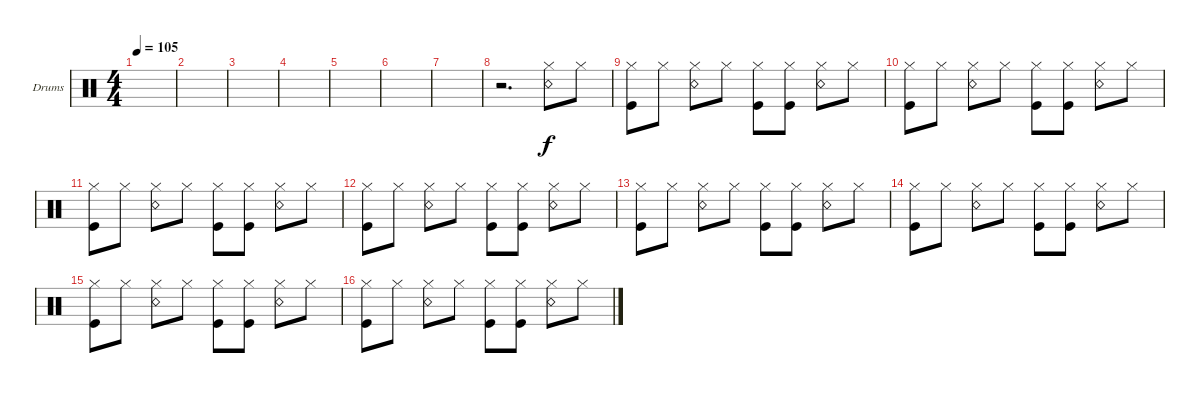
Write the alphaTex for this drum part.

\defaultSystemsLayout 4
\bracketExtendMode groupsimilarinstruments
\firstSystemTrackNameOrientation horizontal
\otherSystemsTrackNameOrientation horizontal
\track ("Drumkit" "Drums") {instrument percussion}
\staff {score}
\articulation defaults
\ts (4 4)
\tempo 105
\clef neutral
\ks c
|
|
|
|
|
|
|
r.2{d} ("Hi-Hat (closed)" "Snare (rim shot)").8 "Hi-Hat (closed)".8 |
("Hi-Hat (closed)" "Kick (hit)").8 "Hi-Hat (closed)".8 ("Hi-Hat (closed)" "Snare (rim shot)").8 "Hi-Hat (closed)".8 ("Hi-Hat (closed)" "Kick (hit)").8 ("Hi-Hat (closed)" "Kick (hit)").8 ("Hi-Hat (closed)" "Snare (rim shot)").8 "Hi-Hat (closed)".8 |
("Hi-Hat (closed)" "Kick (hit)").8 "Hi-Hat (closed)".8 ("Hi-Hat (closed)" "Snare (rim shot)").8 "Hi-Hat (closed)".8 ("Hi-Hat (closed)" "Kick (hit)").8 ("Hi-Hat (closed)" "Kick (hit)").8 ("Hi-Hat (closed)" "Snare (rim shot)").8 "Hi-Hat (closed)".8 |
("Hi-Hat (closed)" "Kick (hit)").8 "Hi-Hat (closed)".8 ("Hi-Hat (closed)" "Snare (rim shot)").8 "Hi-Hat (closed)".8 ("Hi-Hat (closed)" "Kick (hit)").8 ("Hi-Hat (closed)" "Kick (hit)").8 ("Hi-Hat (closed)" "Snare (rim shot)").8 "Hi-Hat (closed)".8 |
("Hi-Hat (closed)" "Kick (hit)").8 "Hi-Hat (closed)".8 ("Hi-Hat (closed)" "Snare (rim shot)").8 "Hi-Hat (closed)".8 ("Hi-Hat (closed)" "Kick (hit)").8 ("Hi-Hat (closed)" "Kick (hit)").8 ("Hi-Hat (closed)" "Snare (rim shot)").8 "Hi-Hat (closed)".8 |
("Hi-Hat (closed)" "Kick (hit)").8 "Hi-Hat (closed)".8 ("Hi-Hat (closed)" "Snare (rim shot)").8 "Hi-Hat (closed)".8 ("Hi-Hat (closed)" "Kick (hit)").8 ("Hi-Hat (closed)" "Kick (hit)").8 ("Hi-Hat (closed)" "Snare (rim shot)").8 "Hi-Hat (closed)".8 |
("Hi-Hat (closed)" "Kick (hit)").8 "Hi-Hat (closed)".8 ("Hi-Hat (closed)" "Snare (rim shot)").8 "Hi-Hat (closed)".8 ("Hi-Hat (closed)" "Kick (hit)").8 ("Hi-Hat (closed)" "Kick (hit)").8 ("Hi-Hat (closed)" "Snare (rim shot)").8 "Hi-Hat (closed)".8 |
("Hi-Hat (closed)" "Kick (hit)").8 "Hi-Hat (closed)".8 ("Hi-Hat (closed)" "Snare (rim shot)").8 "Hi-Hat (closed)".8 ("Hi-Hat (closed)" "Kick (hit)").8 ("Hi-Hat (closed)" "Kick (hit)").8 ("Hi-Hat (closed)" "Snare (rim shot)").8 "Hi-Hat (closed)".8 |
("Hi-Hat (closed)" "Kick (hit)").8 "Hi-Hat (closed)".8 ("Hi-Hat (closed)" "Snare (rim shot)").8 "Hi-Hat (closed)".8 ("Hi-Hat (closed)" "Kick (hit)").8 ("Hi-Hat (closed)" "Kick (hit)").8 ("Hi-Hat (closed)" "Snare (rim shot)").8 "Hi-Hat (closed)".8
